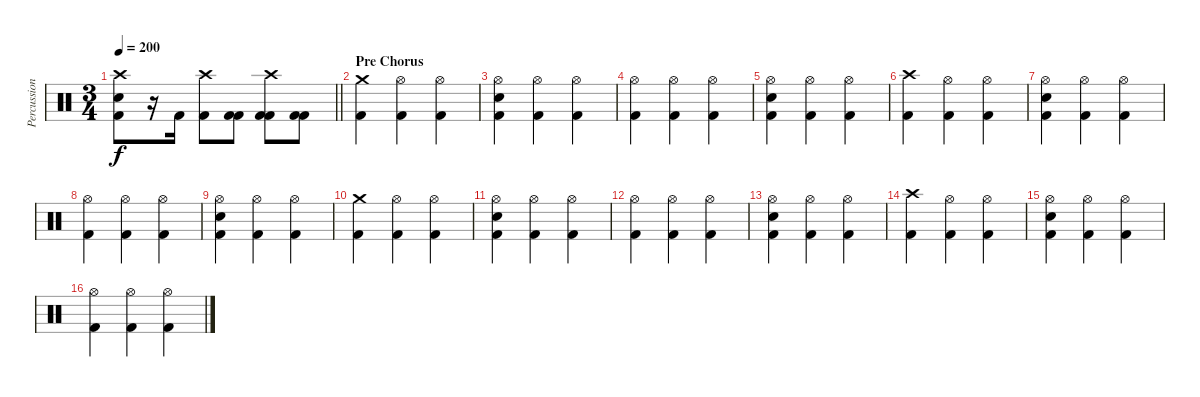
\track ("Percussion" "Percussion") {instrument percussion}
\staff {score}
\articulation defaults
\ts (3 4)
\tempo 200
\clef neutral
\barLineRight lightlight
\ks c
("Crash high (hit)" "Electric Snare (hit)" "Kick (hit) 2").8{dy f} r.16 "Kick (hit) 2".16 ("Crash high (hit)" "Kick (hit) 2").8 ("Kick (hit) 2" "Kick (hit) 2").8 ("Crash high (hit)" "Kick (hit) 2" "Kick (hit) 2").8 ("Kick (hit) 2" "Kick (hit) 2").8 |
\section ("" "Pre Chorus")
("Crash medium (hit)" "Kick (hit) 2").4 ("Hi-Hat (open)" "Kick (hit) 2").4 ("Hi-Hat (open)" "Kick (hit) 2").4 |
("Hi-Hat (open)" "Electric Snare (hit)" "Kick (hit) 2").4 ("Hi-Hat (open)" "Kick (hit) 2").4 ("Hi-Hat (open)" "Kick (hit) 2").4 |
("Hi-Hat (open)" "Kick (hit) 2").4 ("Hi-Hat (open)" "Kick (hit) 2").4 ("Hi-Hat (open)" "Kick (hit) 2").4 |
("Hi-Hat (open)" "Electric Snare (hit)" "Kick (hit) 2").4 ("Hi-Hat (open)" "Kick (hit) 2").4 ("Hi-Hat (open)" "Kick (hit) 2").4 |
("Crash high (hit)" "Kick (hit) 2").4 ("Hi-Hat (open)" "Kick (hit) 2").4 ("Hi-Hat (open)" "Kick (hit) 2").4 |
("Hi-Hat (open)" "Electric Snare (hit)" "Kick (hit) 2").4 ("Hi-Hat (open)" "Kick (hit) 2").4 ("Hi-Hat (open)" "Kick (hit) 2").4 |
("Hi-Hat (open)" "Kick (hit) 2").4 ("Hi-Hat (open)" "Kick (hit) 2").4 ("Hi-Hat (open)" "Kick (hit) 2").4 |
("Hi-Hat (open)" "Electric Snare (hit)" "Kick (hit) 2").4 ("Hi-Hat (open)" "Kick (hit) 2").4 ("Hi-Hat (open)" "Kick (hit) 2").4 |
("Crash medium (hit)" "Kick (hit) 2").4 ("Hi-Hat (open)" "Kick (hit) 2").4 ("Hi-Hat (open)" "Kick (hit) 2").4 |
("Hi-Hat (open)" "Electric Snare (hit)" "Kick (hit) 2").4 ("Hi-Hat (open)" "Kick (hit) 2").4 ("Hi-Hat (open)" "Kick (hit) 2").4 |
("Hi-Hat (open)" "Kick (hit) 2").4 ("Hi-Hat (open)" "Kick (hit) 2").4 ("Hi-Hat (open)" "Kick (hit) 2").4 |
("Hi-Hat (open)" "Electric Snare (hit)" "Kick (hit) 2").4 ("Hi-Hat (open)" "Kick (hit) 2").4 ("Hi-Hat (open)" "Kick (hit) 2").4 |
("Crash high (hit)" "Kick (hit) 2").4 ("Hi-Hat (open)" "Kick (hit) 2").4 ("Hi-Hat (open)" "Kick (hit) 2").4 |
("Hi-Hat (open)" "Electric Snare (hit)" "Kick (hit) 2").4 ("Hi-Hat (open)" "Kick (hit) 2").4 ("Hi-Hat (open)" "Kick (hit) 2").4 |
("Hi-Hat (open)" "Kick (hit) 2").4 ("Hi-Hat (open)" "Kick (hit) 2").4 ("Hi-Hat (open)" "Kick (hit) 2").4
